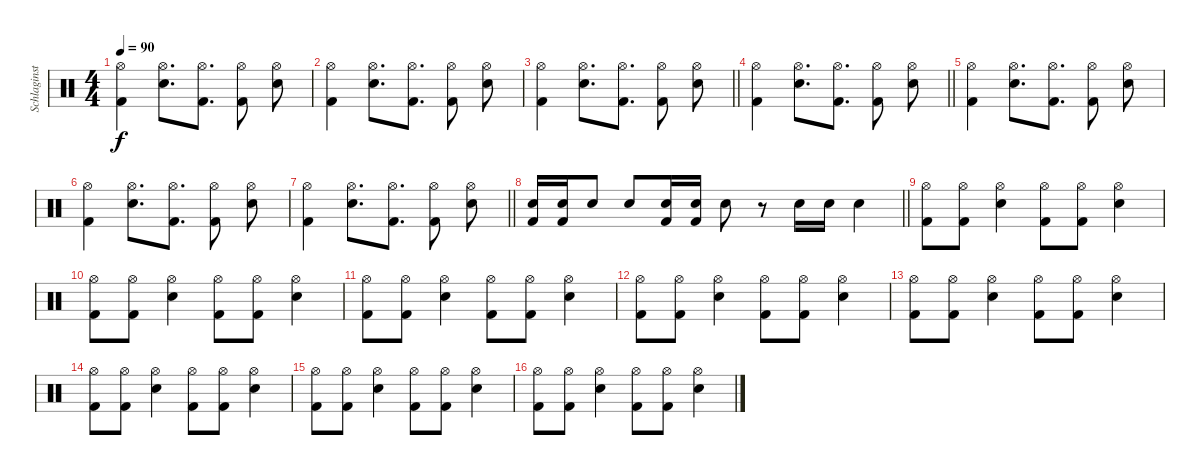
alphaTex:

\track ("Schlaginstrumente - Auswahl" "Schlaginst") {instrument percussion}
\staff {score}
\articulation defaults
\ts (4 4)
\tempo 90
\clef neutral
\ks c
("Kick (hit) 2" "Hi-Hat (open)").4{dy f} ("Snare (hit) 2" "Hi-Hat (open)").8{d} ("Kick (hit) 2" "Hi-Hat (open)").8{d} ("Kick (hit) 2" "Hi-Hat (open)").8 ("Snare (hit) 2" "Hi-Hat (open)").8 |
("Kick (hit) 2" "Hi-Hat (open)").4 ("Snare (hit) 2" "Hi-Hat (open)").8{d} ("Kick (hit) 2" "Hi-Hat (open)").8{d} ("Kick (hit) 2" "Hi-Hat (open)").8 ("Snare (hit) 2" "Hi-Hat (open)").8 |
\barLineRight lightlight
("Kick (hit) 2" "Hi-Hat (open)").4 ("Snare (hit) 2" "Hi-Hat (open)").8{d} ("Kick (hit) 2" "Hi-Hat (open)").8{d} ("Kick (hit) 2" "Hi-Hat (open)").8 ("Snare (hit) 2" "Hi-Hat (open)").8 |
\barLineRight lightlight
("Kick (hit) 2" "Hi-Hat (open)").4 ("Snare (hit) 2" "Hi-Hat (open)").8{d} ("Kick (hit) 2" "Hi-Hat (open)").8{d} ("Kick (hit) 2" "Hi-Hat (open)").8 ("Snare (hit) 2" "Hi-Hat (open)").8 |
("Kick (hit) 2" "Hi-Hat (open)").4 ("Snare (hit) 2" "Hi-Hat (open)").8{d} ("Kick (hit) 2" "Hi-Hat (open)").8{d} ("Kick (hit) 2" "Hi-Hat (open)").8 ("Snare (hit) 2" "Hi-Hat (open)").8 |
("Kick (hit) 2" "Hi-Hat (open)").4 ("Snare (hit) 2" "Hi-Hat (open)").8{d} ("Kick (hit) 2" "Hi-Hat (open)").8{d} ("Kick (hit) 2" "Hi-Hat (open)").8 ("Snare (hit) 2" "Hi-Hat (open)").8 |
\barLineRight lightlight
("Kick (hit) 2" "Hi-Hat (open)").4 ("Snare (hit) 2" "Hi-Hat (open)").8{d} ("Kick (hit) 2" "Hi-Hat (open)").8{d} ("Kick (hit) 2" "Hi-Hat (open)").8 ("Snare (hit) 2" "Hi-Hat (open)").8 |
\barLineRight lightlight
("Kick (hit) 2" "Snare (hit) 2").16 ("Kick (hit) 2" "Snare (hit) 2").16 "Snare (hit) 2".8 "Snare (hit) 2".8 ("Kick (hit) 2" "Snare (hit) 2").16 ("Kick (hit) 2" "Snare (hit) 2").16 "Snare (hit) 2".8 r.8 "Snare (hit) 2".16 "Snare (hit) 2".16 "Snare (hit) 2".4 |
("Kick (hit) 2" "Hi-Hat (open)").8 ("Kick (hit) 2" "Hi-Hat (open)").8 ("Snare (hit) 2" "Hi-Hat (open)").4 ("Kick (hit) 2" "Hi-Hat (open)").8 ("Kick (hit) 2" "Hi-Hat (open)").8 ("Snare (hit) 2" "Hi-Hat (open)").4 |
("Kick (hit) 2" "Hi-Hat (open)").8 ("Kick (hit) 2" "Hi-Hat (open)").8 ("Snare (hit) 2" "Hi-Hat (open)").4 ("Kick (hit) 2" "Hi-Hat (open)").8 ("Kick (hit) 2" "Hi-Hat (open)").8 ("Snare (hit) 2" "Hi-Hat (open)").4 |
("Kick (hit) 2" "Hi-Hat (open)").8 ("Kick (hit) 2" "Hi-Hat (open)").8 ("Snare (hit) 2" "Hi-Hat (open)").4 ("Kick (hit) 2" "Hi-Hat (open)").8 ("Kick (hit) 2" "Hi-Hat (open)").8 ("Snare (hit) 2" "Hi-Hat (open)").4 |
("Kick (hit) 2" "Hi-Hat (open)").8 ("Kick (hit) 2" "Hi-Hat (open)").8 ("Snare (hit) 2" "Hi-Hat (open)").4 ("Kick (hit) 2" "Hi-Hat (open)").8 ("Kick (hit) 2" "Hi-Hat (open)").8 ("Snare (hit) 2" "Hi-Hat (open)").4 |
("Kick (hit) 2" "Hi-Hat (open)").8 ("Kick (hit) 2" "Hi-Hat (open)").8 ("Snare (hit) 2" "Hi-Hat (open)").4 ("Kick (hit) 2" "Hi-Hat (open)").8 ("Kick (hit) 2" "Hi-Hat (open)").8 ("Snare (hit) 2" "Hi-Hat (open)").4 |
("Kick (hit) 2" "Hi-Hat (open)").8 ("Kick (hit) 2" "Hi-Hat (open)").8 ("Snare (hit) 2" "Hi-Hat (open)").4 ("Kick (hit) 2" "Hi-Hat (open)").8 ("Kick (hit) 2" "Hi-Hat (open)").8 ("Snare (hit) 2" "Hi-Hat (open)").4 |
("Kick (hit) 2" "Hi-Hat (open)").8 ("Kick (hit) 2" "Hi-Hat (open)").8 ("Snare (hit) 2" "Hi-Hat (open)").4 ("Kick (hit) 2" "Hi-Hat (open)").8 ("Kick (hit) 2" "Hi-Hat (open)").8 ("Snare (hit) 2" "Hi-Hat (open)").4 |
("Kick (hit) 2" "Hi-Hat (open)").8 ("Kick (hit) 2" "Hi-Hat (open)").8 ("Snare (hit) 2" "Hi-Hat (open)").4 ("Kick (hit) 2" "Hi-Hat (open)").8 ("Kick (hit) 2" "Hi-Hat (open)").8 ("Snare (hit) 2" "Hi-Hat (open)").4
